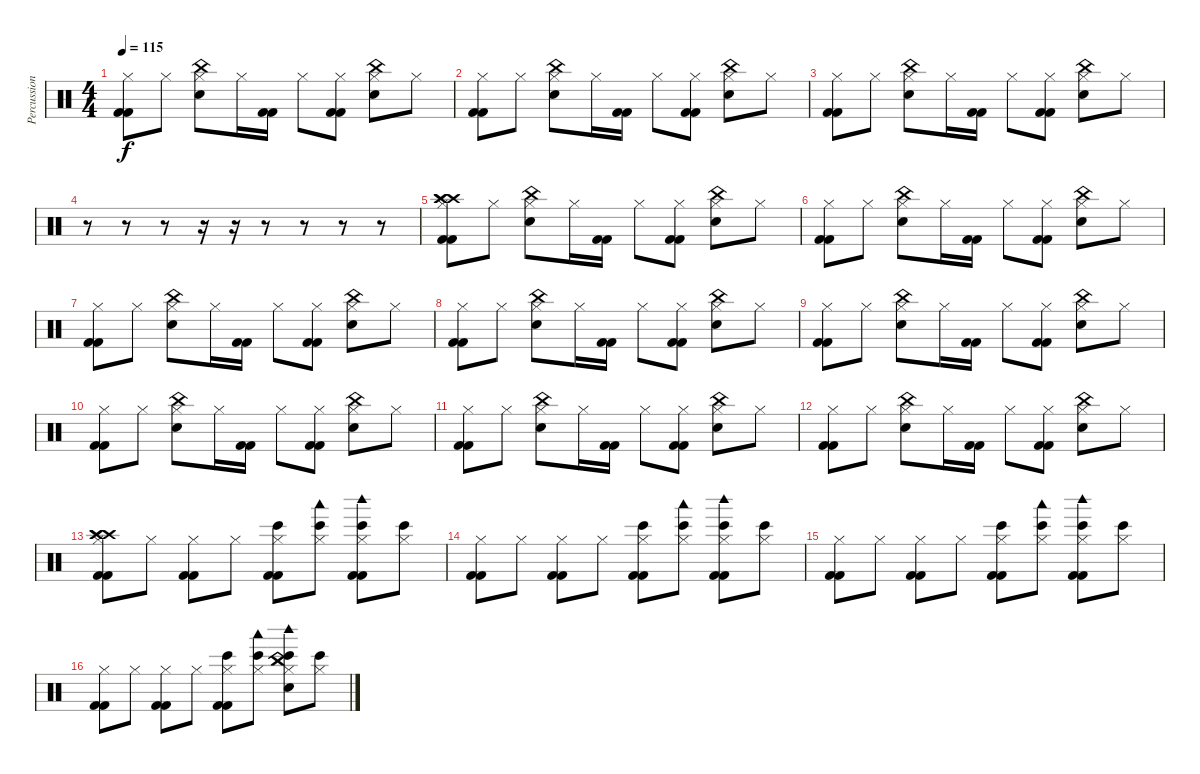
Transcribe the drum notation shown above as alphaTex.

\track ("Percussion" "Percussion") {instrument percussion}
\staff {score}
\articulation defaults
\ts (4 4)
\tempo 115
\clef neutral
\ks c
("Hi-Hat (closed)" "Kick (hit) 2" "Kick (hit) 2").8{dy f} "Hi-Hat (closed)".8 ("Hi-Hat (closed)" "Electric Snare (hit)" "China (hit)").8 "Hi-Hat (closed)".16 ("Kick (hit) 2" "Kick (hit) 2").16 "Hi-Hat (closed)".8 ("Hi-Hat (closed)" "Kick (hit) 2" "Kick (hit) 2").8 ("Hi-Hat (closed)" "Electric Snare (hit)" "China (hit)").8 "Hi-Hat (closed)".8 |
("Hi-Hat (closed)" "Kick (hit) 2" "Kick (hit) 2").8 "Hi-Hat (closed)".8 ("Hi-Hat (closed)" "Electric Snare (hit)" "China (hit)").8 "Hi-Hat (closed)".16 ("Kick (hit) 2" "Kick (hit) 2").16 "Hi-Hat (closed)".8 ("Hi-Hat (closed)" "Kick (hit) 2" "Kick (hit) 2").8 ("Hi-Hat (closed)" "Electric Snare (hit)" "China (hit)").8 "Hi-Hat (closed)".8 |
("Hi-Hat (closed)" "Kick (hit) 2" "Kick (hit) 2").8 "Hi-Hat (closed)".8 ("Hi-Hat (closed)" "Electric Snare (hit)" "China (hit)").8 "Hi-Hat (closed)".16 ("Kick (hit) 2" "Kick (hit) 2").16 "Hi-Hat (closed)".8 ("Hi-Hat (closed)" "Kick (hit) 2" "Kick (hit) 2").8 ("Hi-Hat (closed)" "Electric Snare (hit)" "China (hit)").8 "Hi-Hat (closed)".8 |
r.8 r.8 r.8 r.16 r.16 r.8 r.8 r.8 r.8 |
("Hi-Hat (closed)" "Kick (hit) 2" "Kick (hit) 2" "Crash high (hit)" "Crash high (hit)" "Crash high (hit)").8 "Hi-Hat (closed)".8 ("Hi-Hat (closed)" "Electric Snare (hit)" "China (hit)").8 "Hi-Hat (closed)".16 ("Kick (hit) 2" "Kick (hit) 2").16 "Hi-Hat (closed)".8 ("Hi-Hat (closed)" "Kick (hit) 2" "Kick (hit) 2").8 ("Hi-Hat (closed)" "Electric Snare (hit)" "China (hit)").8 "Hi-Hat (closed)".8 |
("Hi-Hat (closed)" "Kick (hit) 2" "Kick (hit) 2").8 "Hi-Hat (closed)".8 ("Hi-Hat (closed)" "Electric Snare (hit)" "China (hit)").8 "Hi-Hat (closed)".16 ("Kick (hit) 2" "Kick (hit) 2").16 "Hi-Hat (closed)".8 ("Hi-Hat (closed)" "Kick (hit) 2" "Kick (hit) 2").8 ("Hi-Hat (closed)" "Electric Snare (hit)" "China (hit)").8 "Hi-Hat (closed)".8 |
("Hi-Hat (closed)" "Kick (hit) 2" "Kick (hit) 2").8 "Hi-Hat (closed)".8 ("Hi-Hat (closed)" "Electric Snare (hit)" "China (hit)").8 "Hi-Hat (closed)".16 ("Kick (hit) 2" "Kick (hit) 2").16 "Hi-Hat (closed)".8 ("Hi-Hat (closed)" "Kick (hit) 2" "Kick (hit) 2").8 ("Hi-Hat (closed)" "Electric Snare (hit)" "China (hit)").8 "Hi-Hat (closed)".8 |
("Hi-Hat (closed)" "Kick (hit) 2" "Kick (hit) 2").8 "Hi-Hat (closed)".8 ("Hi-Hat (closed)" "Electric Snare (hit)" "China (hit)").8 "Hi-Hat (closed)".16 ("Kick (hit) 2" "Kick (hit) 2").16 "Hi-Hat (closed)".8 ("Hi-Hat (closed)" "Kick (hit) 2" "Kick (hit) 2").8 ("Hi-Hat (closed)" "Electric Snare (hit)" "China (hit)").8 "Hi-Hat (closed)".8 |
("Hi-Hat (closed)" "Kick (hit) 2" "Kick (hit) 2").8 "Hi-Hat (closed)".8 ("Hi-Hat (closed)" "Electric Snare (hit)" "China (hit)").8 "Hi-Hat (closed)".16 ("Kick (hit) 2" "Kick (hit) 2").16 "Hi-Hat (closed)".8 ("Hi-Hat (closed)" "Kick (hit) 2" "Kick (hit) 2").8 ("Hi-Hat (closed)" "Electric Snare (hit)" "China (hit)").8 "Hi-Hat (closed)".8 |
("Hi-Hat (closed)" "Kick (hit) 2" "Kick (hit) 2").8 "Hi-Hat (closed)".8 ("Hi-Hat (closed)" "Electric Snare (hit)" "China (hit)").8 "Hi-Hat (closed)".16 ("Kick (hit) 2" "Kick (hit) 2").16 "Hi-Hat (closed)".8 ("Hi-Hat (closed)" "Kick (hit) 2" "Kick (hit) 2").8 ("Hi-Hat (closed)" "Electric Snare (hit)" "China (hit)").8 "Hi-Hat (closed)".8 |
("Hi-Hat (closed)" "Kick (hit) 2" "Kick (hit) 2").8 "Hi-Hat (closed)".8 ("Hi-Hat (closed)" "Electric Snare (hit)" "China (hit)").8 "Hi-Hat (closed)".16 ("Kick (hit) 2" "Kick (hit) 2").16 "Hi-Hat (closed)".8 ("Hi-Hat (closed)" "Kick (hit) 2" "Kick (hit) 2").8 ("Hi-Hat (closed)" "Electric Snare (hit)" "China (hit)").8 "Hi-Hat (closed)".8 |
("Hi-Hat (closed)" "Kick (hit) 2" "Kick (hit) 2").8 "Hi-Hat (closed)".8 ("Hi-Hat (closed)" "Electric Snare (hit)" "China (hit)").8 "Hi-Hat (closed)".16 ("Kick (hit) 2" "Kick (hit) 2").16 "Hi-Hat (closed)".8 ("Hi-Hat (closed)" "Kick (hit) 2" "Kick (hit) 2").8 ("Hi-Hat (closed)" "Electric Snare (hit)" "China (hit)").8 "Hi-Hat (closed)".8 |
("Hi-Hat (closed)" "Kick (hit) 2" "Kick (hit) 2" "Crash high (hit)" "Crash high (hit)" "Crash high (hit)").8 "Hi-Hat (closed)".8 ("Hi-Hat (closed)" "Kick (hit) 2" "Kick (hit) 2").8 "Hi-Hat (closed)".8 ("Hi-Hat (closed)" "Kick (hit) 2" "Kick (hit) 2" "Bongo High (hit)").8 ("Hi-Hat (closed)" "Bongo High (hit)" "Woodblock low (hit)").8 ("Hi-Hat (closed)" "Kick (hit) 2" "Kick (hit) 2" "Bongo High (hit)" "Woodblock high (hit)").8 ("Hi-Hat (closed)" "Bongo High (hit)").8 |
("Hi-Hat (closed)" "Kick (hit) 2" "Kick (hit) 2").8 "Hi-Hat (closed)".8 ("Hi-Hat (closed)" "Kick (hit) 2" "Kick (hit) 2").8 "Hi-Hat (closed)".8 ("Hi-Hat (closed)" "Kick (hit) 2" "Kick (hit) 2" "Bongo High (hit)").8 ("Hi-Hat (closed)" "Bongo High (hit)" "Woodblock low (hit)").8 ("Hi-Hat (closed)" "Kick (hit) 2" "Kick (hit) 2" "Bongo High (hit)" "Woodblock high (hit)").8 ("Hi-Hat (closed)" "Bongo High (hit)").8 |
("Hi-Hat (closed)" "Kick (hit) 2" "Kick (hit) 2").8 "Hi-Hat (closed)".8 ("Hi-Hat (closed)" "Kick (hit) 2" "Kick (hit) 2").8 "Hi-Hat (closed)".8 ("Hi-Hat (closed)" "Kick (hit) 2" "Kick (hit) 2" "Bongo High (hit)").8 ("Hi-Hat (closed)" "Bongo High (hit)" "Woodblock low (hit)").8 ("Hi-Hat (closed)" "Kick (hit) 2" "Kick (hit) 2" "Bongo High (hit)" "Woodblock high (hit)").8 ("Hi-Hat (closed)" "Bongo High (hit)").8 |
("Hi-Hat (closed)" "Kick (hit) 2" "Kick (hit) 2").8 "Hi-Hat (closed)".8 ("Hi-Hat (closed)" "Kick (hit) 2" "Kick (hit) 2").8 "Hi-Hat (closed)".8 ("Hi-Hat (closed)" "Kick (hit) 2" "Kick (hit) 2" "Bongo High (hit)").8 ("Hi-Hat (closed)" "Bongo High (hit)" "Woodblock low (hit)").8 ("Hi-Hat (closed)" "Electric Snare (hit)" "China (hit)" "Bongo High (hit)" "Woodblock high (hit)" "China (hit)").8 ("Hi-Hat (closed)" "Bongo High (hit)").8
